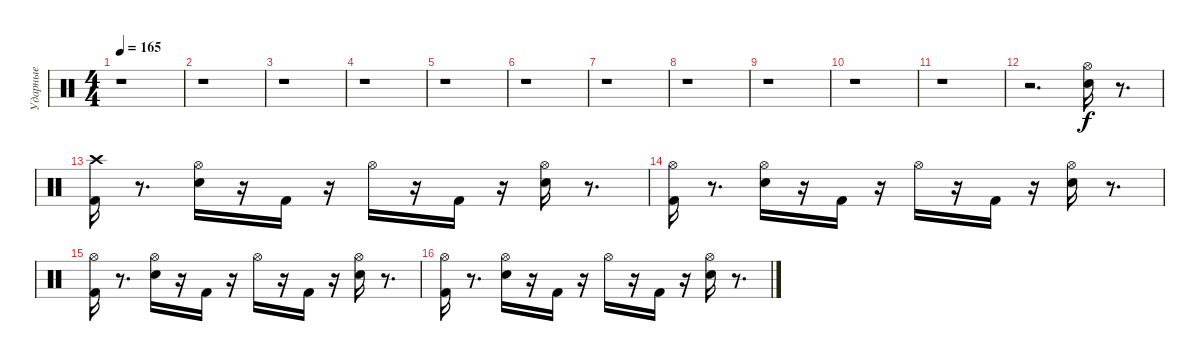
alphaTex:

\track ("Ударные" "Ударные") {instrument percussion}
\staff {score}
\articulation defaults
\ts (4 4)
\tempo 165
\clef neutral
\ks c
r.1{dy mp} |
r.1 |
r.1 |
r.1 |
r.1 |
r.1 |
r.1 |
r.1 |
r.1 |
r.1 |
r.1 |
r.2{d} ("Hi-Hat (open)" "Electric Snare (hit)").16{dy f} r.8{d} |
("Kick (hit) 2" "Crash high (hit)").16 r.8{d} ("Hi-Hat (open)" "Electric Snare (hit)").16 r.16 "Kick (hit) 2".16 r.16 "Hi-Hat (open)".16 r.16 "Kick (hit) 2".16 r.16 ("Electric Snare (hit)" "Hi-Hat (open)").16 r.8{d} |
("Kick (hit) 2" "Hi-Hat (open)").16 r.8{d} ("Hi-Hat (open)" "Electric Snare (hit)").16 r.16 "Kick (hit) 2".16 r.16 "Hi-Hat (open)".16 r.16 "Kick (hit) 2".16 r.16 ("Electric Snare (hit)" "Hi-Hat (open)").16 r.8{d} |
("Kick (hit) 2" "Hi-Hat (open)").16 r.8{d} ("Electric Snare (hit)" "Hi-Hat (open)").16 r.16 "Kick (hit) 2".16 r.16 "Hi-Hat (open)".16 r.16 "Kick (hit) 2".16 r.16 ("Electric Snare (hit)" "Hi-Hat (open)").16 r.8{d} |
("Kick (hit) 2" "Hi-Hat (open)").16 r.8{d} ("Electric Snare (hit)" "Hi-Hat (open)").16 r.16 "Kick (hit) 2".16 r.16 "Hi-Hat (open)".16 r.16 "Kick (hit) 2".16 r.16 ("Electric Snare (hit)" "Hi-Hat (open)").16 r.8{d}
